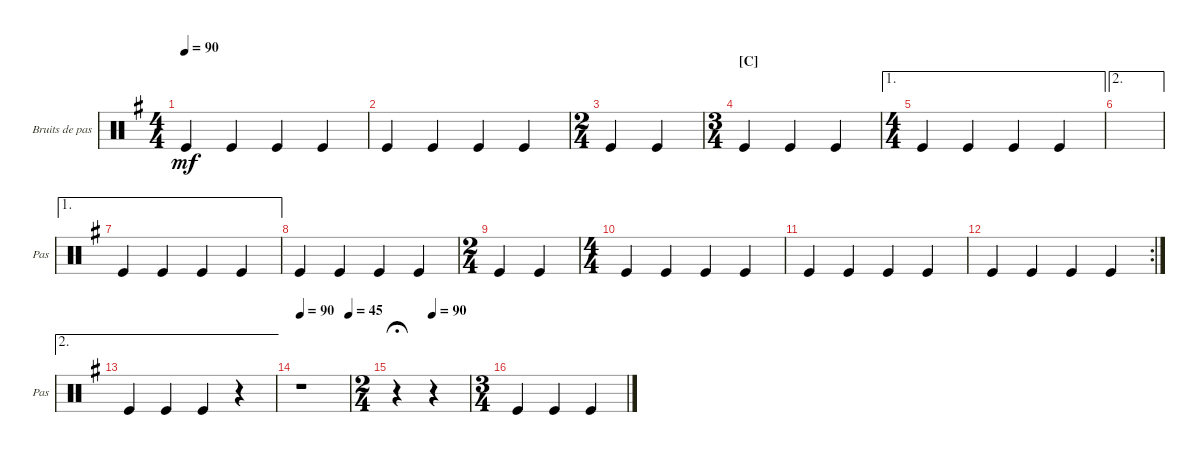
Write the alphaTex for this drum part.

\defaultSystemsLayout 4
\singleTrackTrackNamePolicy allsystems
\multiTrackTrackNamePolicy allsystems
\firstSystemTrackNameMode fullname
\firstSystemTrackNameOrientation horizontal
\otherSystemsTrackNameOrientation horizontal
\chordDiagramsInScore
\track ("Bruits de pas" "Pas") {instrument percussion}
\staff {score}
\articulation defaults
\ts (4 4)
\tempo 90
\clef neutral
\ks g "Kick (hit)".4{dy mf} "Kick (hit)".4 "Kick (hit)".4 "Kick (hit)".4
|
"Kick (hit)".4 "Kick (hit)".4 "Kick (hit)".4 "Kick (hit)".4 |
\ts (2 4)
"Kick (hit)".4 "Kick (hit)".4 |
\ts (3 4)
\section ("C" "")
"Kick (hit)".4 "Kick (hit)".4 "Kick (hit)".4 |
\ae 1
\ts (4 4)
"Kick (hit)".4 "Kick (hit)".4 "Kick (hit)".4 "Kick (hit)".4 |
\ae 2
|
\ae 1 "Kick (hit)".4 "Kick (hit)".4 "Kick (hit)".4 "Kick (hit)".4
|
"Kick (hit)".4 "Kick (hit)".4 "Kick (hit)".4 "Kick (hit)".4 |
\ts (2 4)
"Kick (hit)".4 "Kick (hit)".4 |
\ts (4 4)
"Kick (hit)".4 "Kick (hit)".4 "Kick (hit)".4 "Kick (hit)".4 |
"Kick (hit)".4 "Kick (hit)".4 "Kick (hit)".4 "Kick (hit)".4 |
\rc 2 "Kick (hit)".4 "Kick (hit)".4 "Kick (hit)".4 "Kick (hit)".4
|
\ae 2 "Kick (hit)".4 "Kick (hit)".4 "Kick (hit)".4
r.4 |
\tempo 90
\tempo (45 1)
r.1 |
\ts (2 4)
\tempo (90 0.5)
r.4{fermata (medium 0.5)} r.4 |
\ts (3 4)
"Kick (hit)".4 "Kick (hit)".4 "Kick (hit)".4
